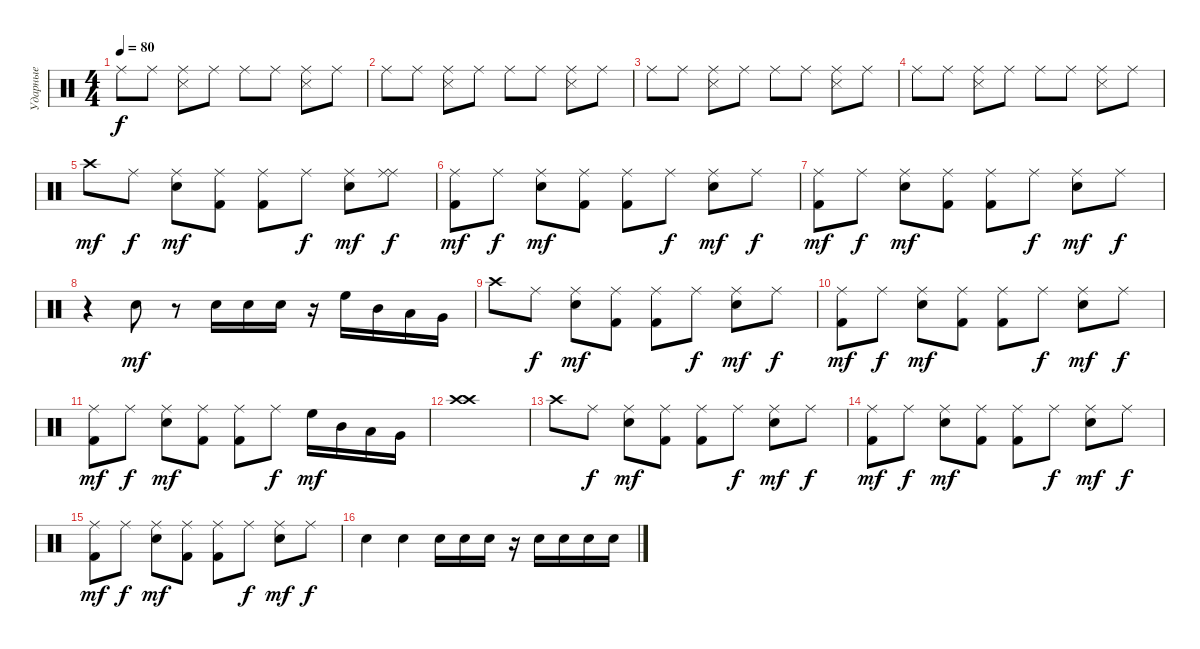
\track ("Ударные" "Ударные") {instrument percussion}
\staff {score}
\articulation defaults
\ts (4 4)
\tempo 80
\clef neutral
\ks c "Ride (middle)".8{dy f} "Ride (middle)".8
("Ride (middle)" "Snare (side stick) 3").8 "Ride (middle)".8 "Ride (middle)".8 "Ride (middle)".8 ("Ride (middle)" "Snare (side stick) 3").8 "Ride (middle)".8 |
"Ride (middle)".8 "Ride (middle)".8 ("Ride (middle)" "Snare (side stick) 3").8 "Ride (middle)".8 "Ride (middle)".8 "Ride (middle)".8 ("Ride (middle)" "Snare (side stick) 3").8 "Ride (middle)".8 |
"Ride (middle)".8 "Ride (middle)".8 ("Ride (middle)" "Snare (side stick) 3").8 "Ride (middle)".8 "Ride (middle)".8 "Ride (middle)".8 ("Ride (middle)" "Snare (side stick) 3").8 "Ride (middle)".8 |
"Ride (middle)".8 "Ride (middle)".8 ("Ride (middle)" "Snare (side stick) 3").8 "Ride (middle)".8 "Ride (middle)".8 "Ride (middle)".8 ("Ride (middle)" "Snare (side stick) 3").8 "Ride (middle)".8 |
"Crash high (hit)".8{dy mf} "Ride (middle)".8{dy f} ("Snare (hit) 2" "Ride (middle)").8{dy mf} ("Kick (hit) 2" "Ride (middle)").8 ("Kick (hit) 2" "Ride (middle)").8 "Ride (middle)".8{dy f} ("Snare (hit) 2" "Ride (middle)").8{dy mf} ("Ride (middle)" "Ride (middle)").8{dy f} |
("Kick (hit) 2" "Ride (middle)").8{dy mf} "Ride (middle)".8{dy f} ("Snare (hit) 2" "Ride (middle)").8{dy mf} ("Kick (hit) 2" "Ride (middle)").8 ("Kick (hit) 2" "Ride (middle)").8 "Ride (middle)".8{dy f} ("Snare (hit) 2" "Ride (middle)").8{dy mf} "Ride (middle)".8{dy f} |
("Kick (hit) 2" "Ride (middle)").8{dy mf} "Ride (middle)".8{dy f} ("Snare (hit) 2" "Ride (middle)").8{dy mf} ("Kick (hit) 2" "Ride (middle)").8 ("Kick (hit) 2" "Ride (middle)").8 "Ride (middle)".8{dy f} ("Snare (hit) 2" "Ride (middle)").8{dy mf} "Ride (middle)".8{dy f} |
r.4 "Snare (hit) 2".8{dy mf} r.8 "Snare (hit) 2".16 "Snare (hit) 2".16 "Snare (hit) 2".16 r.16 "High Floor Tom (hit)".16 "Mid Tom (hit)".16 "Low Tom (hit)".16 "Very Low Tom (hit)".16 |
"Crash high (hit)".8 "Ride (middle)".8{dy f} ("Snare (hit) 2" "Ride (middle)").8{dy mf} ("Kick (hit) 2" "Ride (middle)").8 ("Kick (hit) 2" "Ride (middle)").8 "Ride (middle)".8{dy f} ("Snare (hit) 2" "Ride (middle)").8{dy mf} "Ride (middle)".8{dy f} |
("Kick (hit) 2" "Ride (middle)").8{dy mf} "Ride (middle)".8{dy f} ("Snare (hit) 2" "Ride (middle)").8{dy mf} ("Kick (hit) 2" "Ride (middle)").8 ("Kick (hit) 2" "Ride (middle)").8 "Ride (middle)".8{dy f} ("Snare (hit) 2" "Ride (middle)").8{dy mf} "Ride (middle)".8{dy f} |
("Kick (hit) 2" "Ride (middle)").8{dy mf} "Ride (middle)".8{dy f} ("Snare (hit) 2" "Ride (middle)").8{dy mf} ("Kick (hit) 2" "Ride (middle)").8 ("Kick (hit) 2" "Ride (middle)").8 "Ride (middle)".8{dy f} "High Floor Tom (hit)".16{dy mf} "Mid Tom (hit)".16 "Low Tom (hit)".16 "Very Low Tom (hit)".16 |
("Crash high (hit)" "Crash high (hit)").1 |
"Crash high (hit)".8 "Ride (middle)".8{dy f} ("Snare (hit) 2" "Ride (middle)").8{dy mf} ("Kick (hit) 2" "Ride (middle)").8 ("Kick (hit) 2" "Ride (middle)").8 "Ride (middle)".8{dy f} ("Snare (hit) 2" "Ride (middle)").8{dy mf} "Ride (middle)".8{dy f} |
("Kick (hit) 2" "Ride (middle)").8{dy mf} "Ride (middle)".8{dy f} ("Snare (hit) 2" "Ride (middle)").8{dy mf} ("Kick (hit) 2" "Ride (middle)").8 ("Kick (hit) 2" "Ride (middle)").8 "Ride (middle)".8{dy f} ("Snare (hit) 2" "Ride (middle)").8{dy mf} "Ride (middle)".8{dy f} |
("Kick (hit) 2" "Ride (middle)").8{dy mf} "Ride (middle)".8{dy f} ("Snare (hit) 2" "Ride (middle)").8{dy mf} ("Kick (hit) 2" "Ride (middle)").8 ("Kick (hit) 2" "Ride (middle)").8 "Ride (middle)".8{dy f} ("Snare (hit) 2" "Ride (middle)").8{dy mf} "Ride (middle)".8{dy f} |
"Snare (hit) 2".4 "Snare (hit) 2".4 "Snare (hit) 2".16 "Snare (hit) 2".16 "Snare (hit) 2".16 r.16 "Snare (hit) 2".16 "Snare (hit) 2".16 "Snare (hit) 2".16 "Snare (hit) 2".16
